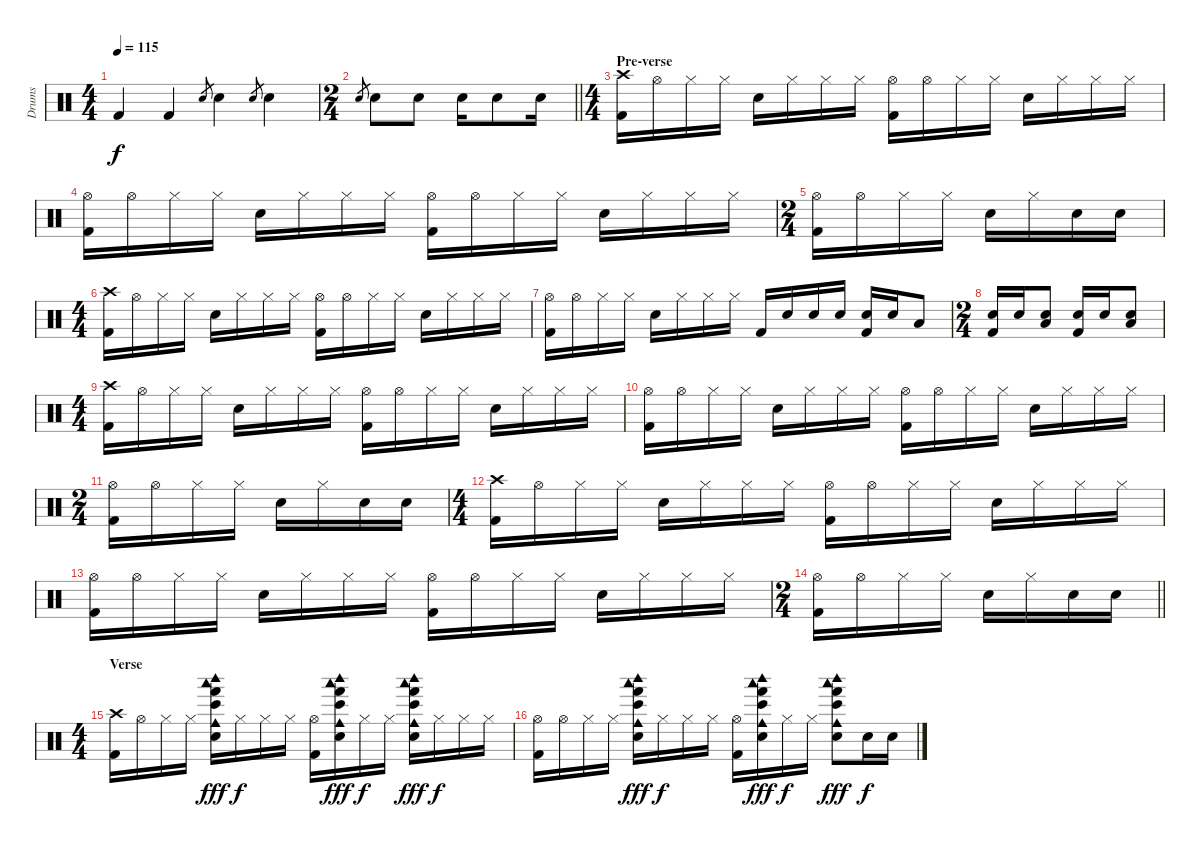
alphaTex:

\track ("Drums" "Drums") {instrument percussion}
\staff {score}
\articulation defaults
\ts (4 4)
\tempo 115
\clef neutral
\ks c "Kick (hit) 2".4{dy f} "Kick (hit) 2".4 "Electric Snare (hit)".8{gr} "Electric Snare (hit)".4 "Electric Snare (hit)".8{gr} "Electric Snare (hit)".4
|
\ts (2 4)
\barLineRight lightlight "Electric Snare (hit)".8{gr} "Electric Snare (hit)".8 "Electric Snare (hit)".8 "Electric Snare (hit)".16 "Electric Snare (hit)".8 "Electric Snare (hit)".16
|
\ts (4 4)
\section ("" "Pre-verse")
("Crash high (hit)" "Kick (hit) 2").16 "Hi-Hat (open)".16 "Hi-Hat (closed)".16 "Hi-Hat (closed)".16 "Electric Snare (hit)".16 "Hi-Hat (closed)".16 "Hi-Hat (closed)".16 "Hi-Hat (closed)".16 ("Hi-Hat (open)" "Kick (hit) 2").16 "Hi-Hat (open)".16 "Hi-Hat (closed)".16 "Hi-Hat (closed)".16 "Electric Snare (hit)".16 "Hi-Hat (closed)".16 "Hi-Hat (closed)".16 "Hi-Hat (closed)".16 |
("Hi-Hat (open)" "Kick (hit) 2").16 "Hi-Hat (open)".16 "Hi-Hat (closed)".16 "Hi-Hat (closed)".16 "Electric Snare (hit)".16 "Hi-Hat (closed)".16 "Hi-Hat (closed)".16 "Hi-Hat (closed)".16 ("Hi-Hat (open)" "Kick (hit) 2").16 "Hi-Hat (open)".16 "Hi-Hat (closed)".16 "Hi-Hat (closed)".16 "Electric Snare (hit)".16 "Hi-Hat (closed)".16 "Hi-Hat (closed)".16 "Hi-Hat (closed)".16 |
\ts (2 4)
("Hi-Hat (open)" "Kick (hit) 2").16 "Hi-Hat (open)".16 "Hi-Hat (closed)".16 "Hi-Hat (closed)".16 "Electric Snare (hit)".16 "Hi-Hat (closed)".16 "Electric Snare (hit)".16 "Electric Snare (hit)".16 |
\ts (4 4)
("Crash high (hit)" "Kick (hit) 2").16 "Hi-Hat (open)".16 "Hi-Hat (closed)".16 "Hi-Hat (closed)".16 "Electric Snare (hit)".16 "Hi-Hat (closed)".16 "Hi-Hat (closed)".16 "Hi-Hat (closed)".16 ("Hi-Hat (open)" "Kick (hit) 2").16 "Hi-Hat (open)".16 "Hi-Hat (closed)".16 "Hi-Hat (closed)".16 "Electric Snare (hit)".16 "Hi-Hat (closed)".16 "Hi-Hat (closed)".16 "Hi-Hat (closed)".16 |
("Hi-Hat (open)" "Kick (hit) 2").16 "Hi-Hat (open)".16 "Hi-Hat (closed)".16 "Hi-Hat (closed)".16 "Electric Snare (hit)".16 "Hi-Hat (closed)".16 "Hi-Hat (closed)".16 "Hi-Hat (closed)".16 "Kick (hit) 2".16 "Electric Snare (hit)".16 "Electric Snare (hit)".16 "Electric Snare (hit)".16 ("Electric Snare (hit)" "Kick (hit) 2").16 "Electric Snare (hit)".16 "Low Floor Tom (hit)".8 |
\ts (2 4)
("Electric Snare (hit)" "Kick (hit) 2").16 "Electric Snare (hit)".16 ("Low Floor Tom (hit)" "Electric Snare (hit)").8 ("Electric Snare (hit)" "Kick (hit) 2").16 "Electric Snare (hit)".16 ("Low Floor Tom (hit)" "Electric Snare (hit)").8 |
\ts (4 4)
("Crash high (hit)" "Kick (hit) 2").16 "Hi-Hat (open)".16 "Hi-Hat (closed)".16 "Hi-Hat (closed)".16 "Electric Snare (hit)".16 "Hi-Hat (closed)".16 "Hi-Hat (closed)".16 "Hi-Hat (closed)".16 ("Hi-Hat (open)" "Kick (hit) 2").16 "Hi-Hat (open)".16 "Hi-Hat (closed)".16 "Hi-Hat (closed)".16 "Electric Snare (hit)".16 "Hi-Hat (closed)".16 "Hi-Hat (closed)".16 "Hi-Hat (closed)".16 |
("Hi-Hat (open)" "Kick (hit) 2").16 "Hi-Hat (open)".16 "Hi-Hat (closed)".16 "Hi-Hat (closed)".16 "Electric Snare (hit)".16 "Hi-Hat (closed)".16 "Hi-Hat (closed)".16 "Hi-Hat (closed)".16 ("Hi-Hat (open)" "Kick (hit) 2").16 "Hi-Hat (open)".16 "Hi-Hat (closed)".16 "Hi-Hat (closed)".16 "Electric Snare (hit)".16 "Hi-Hat (closed)".16 "Hi-Hat (closed)".16 "Hi-Hat (closed)".16 |
\ts (2 4)
("Hi-Hat (open)" "Kick (hit) 2").16 "Hi-Hat (open)".16 "Hi-Hat (closed)".16 "Hi-Hat (closed)".16 "Electric Snare (hit)".16 "Hi-Hat (closed)".16 "Electric Snare (hit)".16 "Electric Snare (hit)".16 |
\ts (4 4)
("Crash high (hit)" "Kick (hit) 2").16 "Hi-Hat (open)".16 "Hi-Hat (closed)".16 "Hi-Hat (closed)".16 "Electric Snare (hit)".16 "Hi-Hat (closed)".16 "Hi-Hat (closed)".16 "Hi-Hat (closed)".16 ("Hi-Hat (open)" "Kick (hit) 2").16 "Hi-Hat (open)".16 "Hi-Hat (closed)".16 "Hi-Hat (closed)".16 "Electric Snare (hit)".16 "Hi-Hat (closed)".16 "Hi-Hat (closed)".16 "Hi-Hat (closed)".16 |
("Hi-Hat (open)" "Kick (hit) 2").16 "Hi-Hat (open)".16 "Hi-Hat (closed)".16 "Hi-Hat (closed)".16 "Electric Snare (hit)".16 "Hi-Hat (closed)".16 "Hi-Hat (closed)".16 "Hi-Hat (closed)".16 ("Hi-Hat (open)" "Kick (hit) 2").16 "Hi-Hat (open)".16 "Hi-Hat (closed)".16 "Hi-Hat (closed)".16 "Electric Snare (hit)".16 "Hi-Hat (closed)".16 "Hi-Hat (closed)".16 "Hi-Hat (closed)".16 |
\ts (2 4)
\barLineRight lightlight
("Hi-Hat (open)" "Kick (hit) 2").16 "Hi-Hat (open)".16 "Hi-Hat (closed)".16 "Hi-Hat (closed)".16 "Electric Snare (hit)".16 "Hi-Hat (closed)".16 "Electric Snare (hit)".16 "Electric Snare (hit)".16 |
\ts (4 4)
\section ("" "Verse")
("Crash high (hit)" "Kick (hit) 2").16 "Hi-Hat (open)".16 "Hi-Hat (closed)".16 "Hi-Hat (closed)".16 ("Woodblock low (hit)" "Woodblock high (hit)" "Cowbell medium (hit)" "Electric Snare (hit)" "Hand (hit)" "Bongo High (hit)").16{dy fff} "Hi-Hat (closed)".16{dy f} "Hi-Hat (closed)".16 "Hi-Hat (closed)".16 ("Hi-Hat (open)" "Kick (hit) 2").16 ("Woodblock low (hit)" "Woodblock high (hit)" "Cowbell medium (hit)" "Electric Snare (hit)" "Hand (hit)" "Bongo High (hit)").16{dy fff} "Hi-Hat (closed)".16{dy f} "Hi-Hat (closed)".16 ("Woodblock low (hit)" "Woodblock high (hit)" "Cowbell medium (hit)" "Electric Snare (hit)" "Hand (hit)" "Bongo High (hit)").16{dy fff} "Hi-Hat (closed)".16{dy f} "Hi-Hat (closed)".16 "Hi-Hat (closed)".16 |
("Hi-Hat (open)" "Kick (hit) 2").16 "Hi-Hat (open)".16 "Hi-Hat (closed)".16 "Hi-Hat (closed)".16 ("Woodblock low (hit)" "Woodblock high (hit)" "Cowbell medium (hit)" "Electric Snare (hit)" "Hand (hit)" "Bongo High (hit)").16{dy fff} "Hi-Hat (closed)".16{dy f} "Hi-Hat (closed)".16 "Hi-Hat (closed)".16 ("Hi-Hat (open)" "Kick (hit) 2").16 ("Woodblock low (hit)" "Woodblock high (hit)" "Cowbell medium (hit)" "Electric Snare (hit)" "Hand (hit)" "Bongo High (hit)").16{dy fff} "Hi-Hat (closed)".16{dy f} "Hi-Hat (closed)".16 ("Woodblock low (hit)" "Woodblock high (hit)" "Cowbell medium (hit)" "Electric Snare (hit)" "Hand (hit)" "Bongo High (hit)").8{dy fff} "Electric Snare (hit)".16{dy f} "Electric Snare (hit)".16
